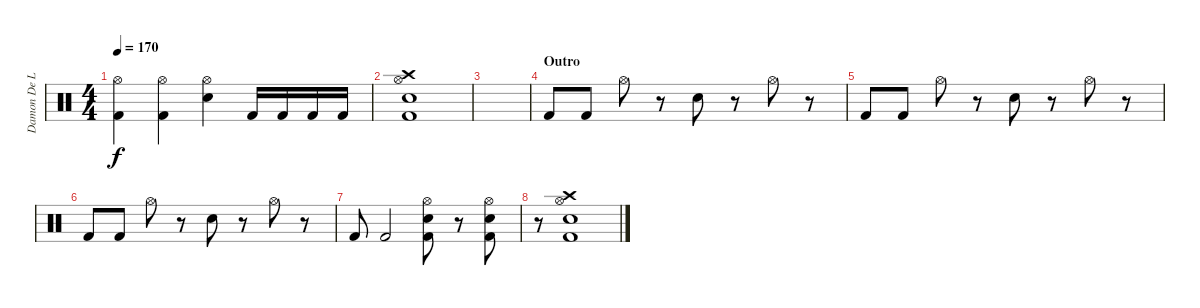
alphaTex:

\track ("Damon De La Paz" "Damon De L") {instrument percussion}
\staff {score}
\articulation defaults
\ts (4 4)
\tempo 170
\clef neutral
\ks c
("Hi-Hat (open)" "Kick (hit) 2").4{dy f} ("Hi-Hat (open)" "Kick (hit) 2").4 ("Hi-Hat (open)" "Electric Snare (hit)").4 "Kick (hit) 2".16 "Kick (hit) 2".16 "Kick (hit) 2".16 "Kick (hit) 2".16 |
("Crash high (hit)" "Hi-Hat (open)" "Electric Snare (hit)" "Kick (hit) 2").1 |
|
\section ("" "Outro")
"Kick (hit) 2".8 "Kick (hit) 2".8 "Hi-Hat (open)".8 r.8 "Electric Snare (hit)".8 r.8 "Hi-Hat (open)".8 r.8 |
"Kick (hit) 2".8 "Kick (hit) 2".8 "Hi-Hat (open)".8 r.8 "Electric Snare (hit)".8 r.8 "Hi-Hat (open)".8 r.8 |
"Kick (hit) 2".8 "Kick (hit) 2".8 "Hi-Hat (open)".8 r.8 "Electric Snare (hit)".8 r.8 "Hi-Hat (open)".8 r.8 |
"Kick (hit) 2".8 "Kick (hit) 2".2 ("Hi-Hat (open)" "Electric Snare (hit)" "Kick (hit) 2").8 r.8 ("Hi-Hat (open)" "Electric Snare (hit)" "Kick (hit) 2").8 |
r.8 ("Crash high (hit)" "Hi-Hat (open)" "Electric Snare (hit)" "Kick (hit) 2").1
